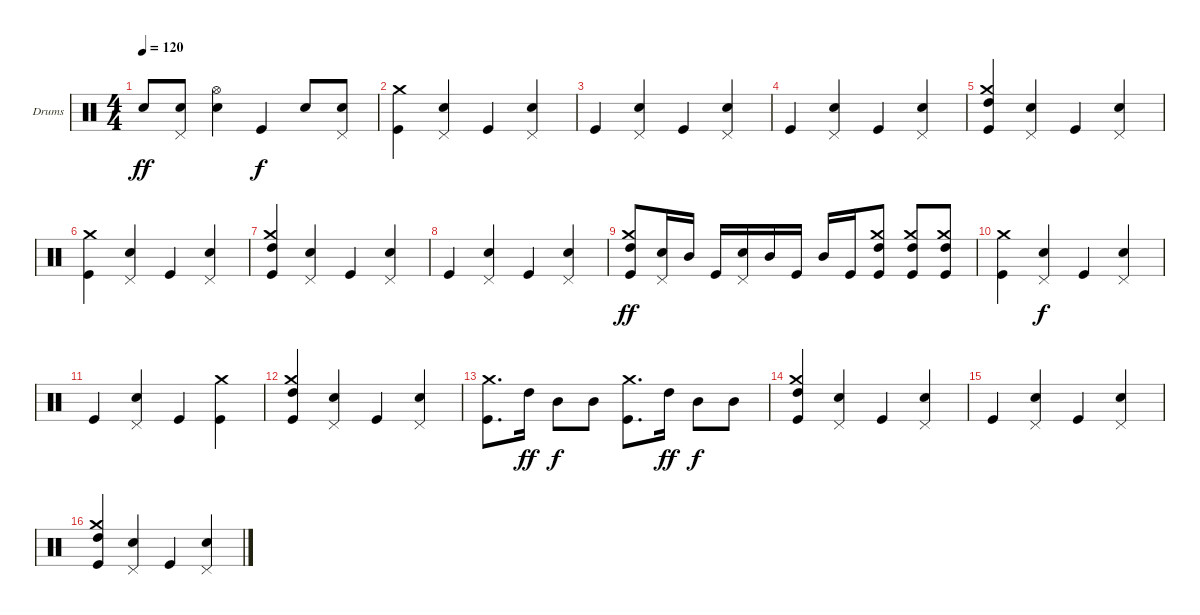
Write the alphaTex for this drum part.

\defaultSystemsLayout 4
\bracketExtendMode groupsimilarinstruments
\firstSystemTrackNameOrientation horizontal
\otherSystemsTrackNameOrientation horizontal
\track ("Drumkit" "Drums") {instrument percussion}
\staff {score}
\articulation defaults
\ts (4 4)
\tempo 120
\clef neutral
\ks c "Snare (hit) 2".8{dy ff}
("Snare (hit) 2" "Pedal Hi-Hat (hit)").8 ("Snare (hit) 2" "Hi-Hat (open)").4 "Kick (hit)".4{dy f} "Snare (hit) 2".8 ("Snare (hit) 2" "Pedal Hi-Hat (hit)").8 |
("Kick (hit)" "Crash medium (hit)").4 ("Pedal Hi-Hat (hit)" "Snare (hit) 2").4 "Kick (hit)".4 ("Pedal Hi-Hat (hit)" "Snare (hit) 2").4 |
"Kick (hit)".4 ("Pedal Hi-Hat (hit)" "Snare (hit) 2").4 "Kick (hit)".4 ("Pedal Hi-Hat (hit)" "Snare (hit) 2").4 |
"Kick (hit)".4 ("Pedal Hi-Hat (hit)" "Snare (hit) 2").4 "Kick (hit)".4 ("Pedal Hi-Hat (hit)" "Snare (hit) 2").4 |
("Kick (hit)" "Crash medium (hit)" "High Tom (hit)").4 ("Pedal Hi-Hat (hit)" "Snare (hit) 2").4 "Kick (hit)".4 ("Pedal Hi-Hat (hit)" "Snare (hit) 2").4 |
("Kick (hit)" "Crash medium (hit)").4 ("Pedal Hi-Hat (hit)" "Snare (hit) 2").4 "Kick (hit)".4 ("Pedal Hi-Hat (hit)" "Snare (hit) 2").4 |
("Kick (hit)" "Crash medium (hit)" "High Tom (hit)").4 ("Pedal Hi-Hat (hit)" "Snare (hit) 2").4 "Kick (hit)".4 ("Pedal Hi-Hat (hit)" "Snare (hit) 2").4 |
"Kick (hit)".4 ("Pedal Hi-Hat (hit)" "Snare (hit) 2").4 "Kick (hit)".4 ("Pedal Hi-Hat (hit)" "Snare (hit) 2").4 |
("Kick (hit)" "Crash medium (hit)" "High Tom (hit)").8{dy ff} ("Pedal Hi-Hat (hit)" "Snare (hit) 2").16 "Mid Tom (hit)".16 "Kick (hit)".16 ("Pedal Hi-Hat (hit)" "Snare (hit) 2").16 "Mid Tom (hit)".16 "Kick (hit)".16 "Mid Tom (hit)".16 "Kick (hit)".16 ("Kick (hit)" "Crash medium (hit)" "High Tom (hit)").8 ("Kick (hit)" "Crash medium (hit)" "High Tom (hit)").8 ("Kick (hit)" "Crash medium (hit)" "High Tom (hit)").8 |
("Kick (hit)" "Crash medium (hit)").4 ("Pedal Hi-Hat (hit)" "Snare (hit) 2").4{dy f} "Kick (hit)".4 ("Pedal Hi-Hat (hit)" "Snare (hit) 2").4 |
"Kick (hit)".4 ("Pedal Hi-Hat (hit)" "Snare (hit) 2").4 "Kick (hit)".4 ("Kick (hit)" "Crash medium (hit)").4 |
("Kick (hit)" "Crash medium (hit)" "High Tom (hit)").4 ("Pedal Hi-Hat (hit)" "Snare (hit) 2").4 "Kick (hit)".4 ("Pedal Hi-Hat (hit)" "Snare (hit) 2").4 |
("Kick (hit)" "Crash medium (hit)").8{d} "High Tom (hit)".16{dy ff} "Mid Tom (hit)".8{dy f} "Mid Tom (hit)".8 ("Kick (hit)" "Crash medium (hit)").8{d} "High Tom (hit)".16{dy ff} "Mid Tom (hit)".8{dy f} "Mid Tom (hit)".8 |
("Kick (hit)" "Crash medium (hit)" "High Tom (hit)").4 ("Pedal Hi-Hat (hit)" "Snare (hit) 2").4 "Kick (hit)".4 ("Pedal Hi-Hat (hit)" "Snare (hit) 2").4 |
"Kick (hit)".4 ("Pedal Hi-Hat (hit)" "Snare (hit) 2").4 "Kick (hit)".4 ("Pedal Hi-Hat (hit)" "Snare (hit) 2").4 |
("Kick (hit)" "Crash medium (hit)" "High Tom (hit)").4 ("Pedal Hi-Hat (hit)" "Snare (hit) 2").4 "Kick (hit)".4 ("Pedal Hi-Hat (hit)" "Snare (hit) 2").4
